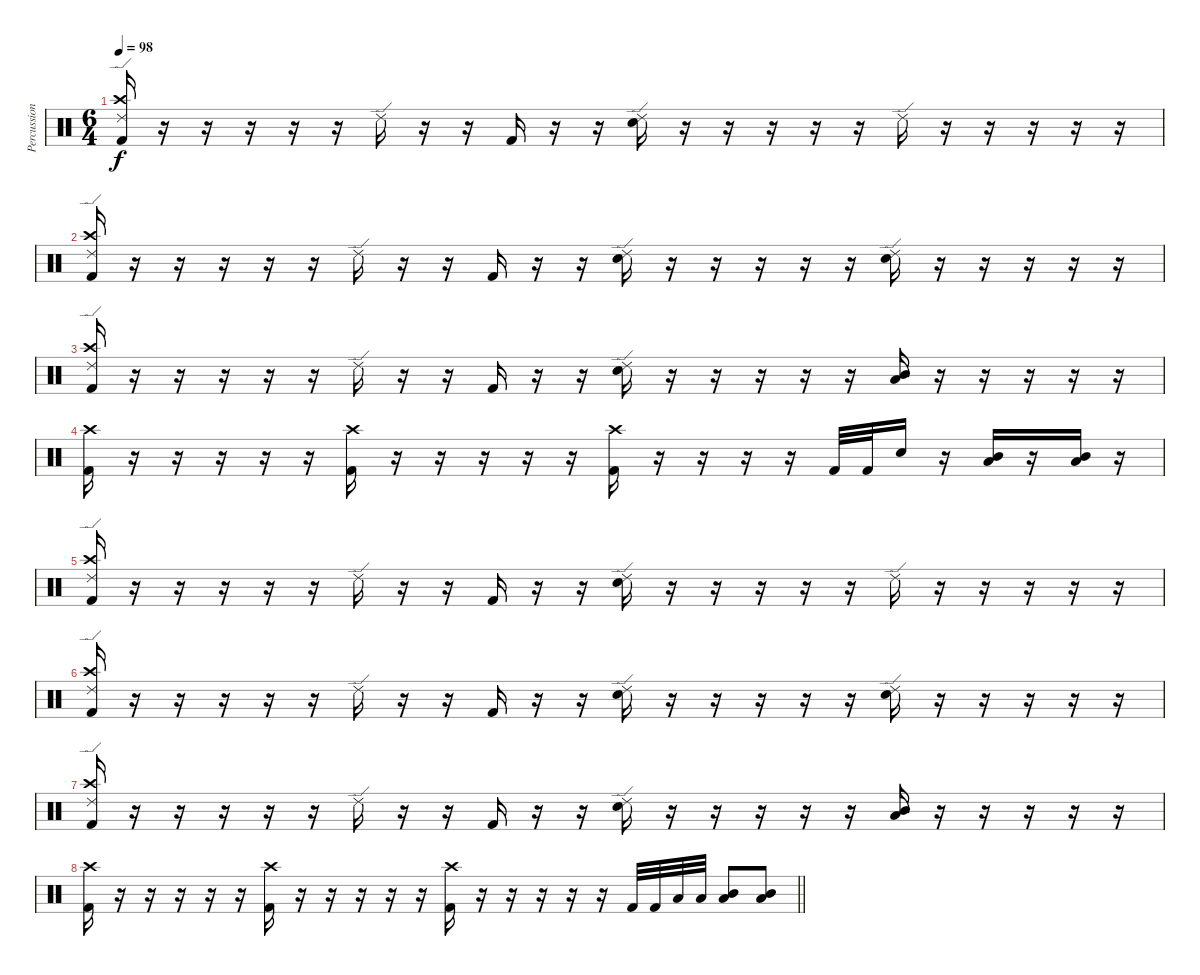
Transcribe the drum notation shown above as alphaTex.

\track ("Percussion" "Percussion") {instrument percussion}
\staff {score}
\articulation defaults
\ts (6 4)
\tempo 98
\clef neutral
\ks c
("Ride (edge) 2" "Crash high (hit)" "Kick (hit) 2").16{dy f} r.16 r.16 r.16 r.16 r.16 "Ride (edge) 2".16 r.16 r.16 "Kick (hit) 2".16 r.16 r.16 ("Ride (edge) 2" "Electric Snare (hit)").16 r.16 r.16 r.16 r.16 r.16 "Ride (edge) 2".16 r.16 r.16 r.16 r.16 r.16 |
("Ride (edge) 2" "Crash high (hit)" "Kick (hit) 2").16 r.16 r.16 r.16 r.16 r.16 "Ride (edge) 2".16 r.16 r.16 "Kick (hit) 2".16 r.16 r.16 ("Ride (edge) 2" "Electric Snare (hit)").16 r.16 r.16 r.16 r.16 r.16 ("Ride (edge) 2" "Electric Snare (hit)").16 r.16 r.16 r.16 r.16 r.16 |
("Ride (edge) 2" "Crash high (hit)" "Kick (hit) 2").16 r.16 r.16 r.16 r.16 r.16 "Ride (edge) 2".16 r.16 r.16 "Kick (hit) 2".16 r.16 r.16 ("Ride (edge) 2" "Electric Snare (hit)").16 r.16 r.16 r.16 r.16 r.16 ("Mid Tom (hit)" "Low Tom (hit)").16 r.16 r.16 r.16 r.16 r.16 |
("Crash high (hit)" "Kick (hit) 2").16 r.16 r.16 r.16 r.16 r.16 ("Crash high (hit)" "Kick (hit) 2").16 r.16 r.16 r.16 r.16 r.16 ("Crash high (hit)" "Kick (hit) 2").16 r.16 r.16 r.16 r.16 "Kick (hit) 2".32 "Kick (hit) 2".32 "Electric Snare (hit)".16 r.16 ("Mid Tom (hit)" "Low Floor Tom (hit)").16 r.16 ("Mid Tom (hit)" "Low Floor Tom (hit)").16 r.16 |
("Ride (edge) 2" "Crash high (hit)" "Kick (hit) 2").16 r.16 r.16 r.16 r.16 r.16 "Ride (edge) 2".16 r.16 r.16 "Kick (hit) 2".16 r.16 r.16 ("Ride (edge) 2" "Electric Snare (hit)").16 r.16 r.16 r.16 r.16 r.16 "Ride (edge) 2".16 r.16 r.16 r.16 r.16 r.16 |
("Ride (edge) 2" "Crash high (hit)" "Kick (hit) 2").16 r.16 r.16 r.16 r.16 r.16 "Ride (edge) 2".16 r.16 r.16 "Kick (hit) 2".16 r.16 r.16 ("Ride (edge) 2" "Electric Snare (hit)").16 r.16 r.16 r.16 r.16 r.16 ("Ride (edge) 2" "Electric Snare (hit)").16 r.16 r.16 r.16 r.16 r.16 |
("Ride (edge) 2" "Crash high (hit)" "Kick (hit) 2").16 r.16 r.16 r.16 r.16 r.16 "Ride (edge) 2".16 r.16 r.16 "Kick (hit) 2".16 r.16 r.16 ("Ride (edge) 2" "Electric Snare (hit)").16 r.16 r.16 r.16 r.16 r.16 ("Mid Tom (hit)" "Low Tom (hit)").16 r.16 r.16 r.16 r.16 r.16 |
\barLineRight lightlight
("Crash high (hit)" "Kick (hit) 2").16 r.16 r.16 r.16 r.16 r.16 ("Crash high (hit)" "Kick (hit) 2").16 r.16 r.16 r.16 r.16 r.16 ("Crash high (hit)" "Kick (hit) 2").16 r.16 r.16 r.16 r.16 r.16 "Kick (hit) 2".32 "Kick (hit) 2".32 "Low Tom (hit)".32 "Low Tom (hit)".32 ("Mid Tom (hit)" "Low Tom (hit)").8 ("Mid Tom (hit)" "Low Tom (hit)").8
